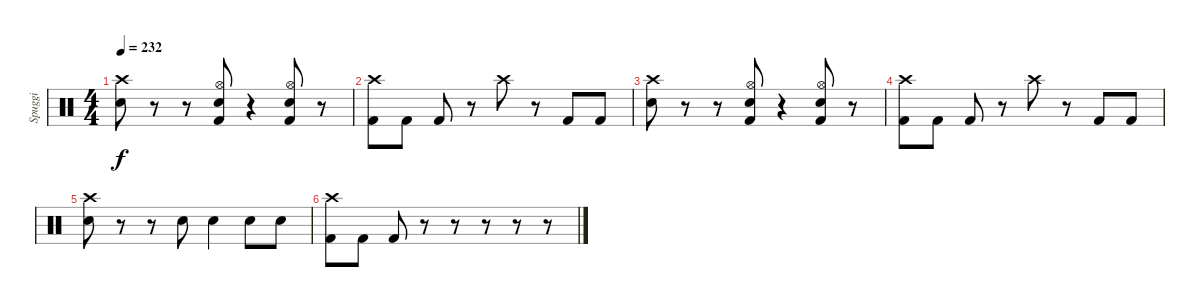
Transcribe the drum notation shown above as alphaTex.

\track ("Spuggi" "Spuggi") {instrument percussion}
\staff {score}
\articulation defaults
\ts (4 4)
\tempo 232
\clef neutral
\ks c
("Crash high (hit)" "Snare (hit) 2").8{dy f} r.8 r.8 ("Hi-Hat (open)" "Snare (hit) 2" "Kick (hit) 2").8 r.4 ("Hi-Hat (open)" "Snare (hit) 2" "Kick (hit) 2").8 r.8 |
("Crash high (hit)" "Kick (hit) 2").8 "Kick (hit) 2".8 "Kick (hit) 2".8 r.8 "Crash high (hit)".8 r.8 "Kick (hit) 2".8 "Kick (hit) 2".8 |
("Crash high (hit)" "Snare (hit) 2").8 r.8 r.8 ("Hi-Hat (open)" "Snare (hit) 2" "Kick (hit) 2").8 r.4 ("Hi-Hat (open)" "Snare (hit) 2" "Kick (hit) 2").8 r.8 |
("Crash high (hit)" "Kick (hit) 2").8 "Kick (hit) 2".8 "Kick (hit) 2".8 r.8 "Crash high (hit)".8 r.8 "Kick (hit) 2".8 "Kick (hit) 2".8 |
("Crash high (hit)" "Snare (hit) 2").8 r.8 r.8 "Snare (hit) 2".8 "Snare (hit) 2".4 "Snare (hit) 2".8 "Snare (hit) 2".8 |
("Crash high (hit)" "Kick (hit) 2").8 "Kick (hit) 2".8 "Kick (hit) 2".8 r.8 r.8 r.8 r.8 r.8
